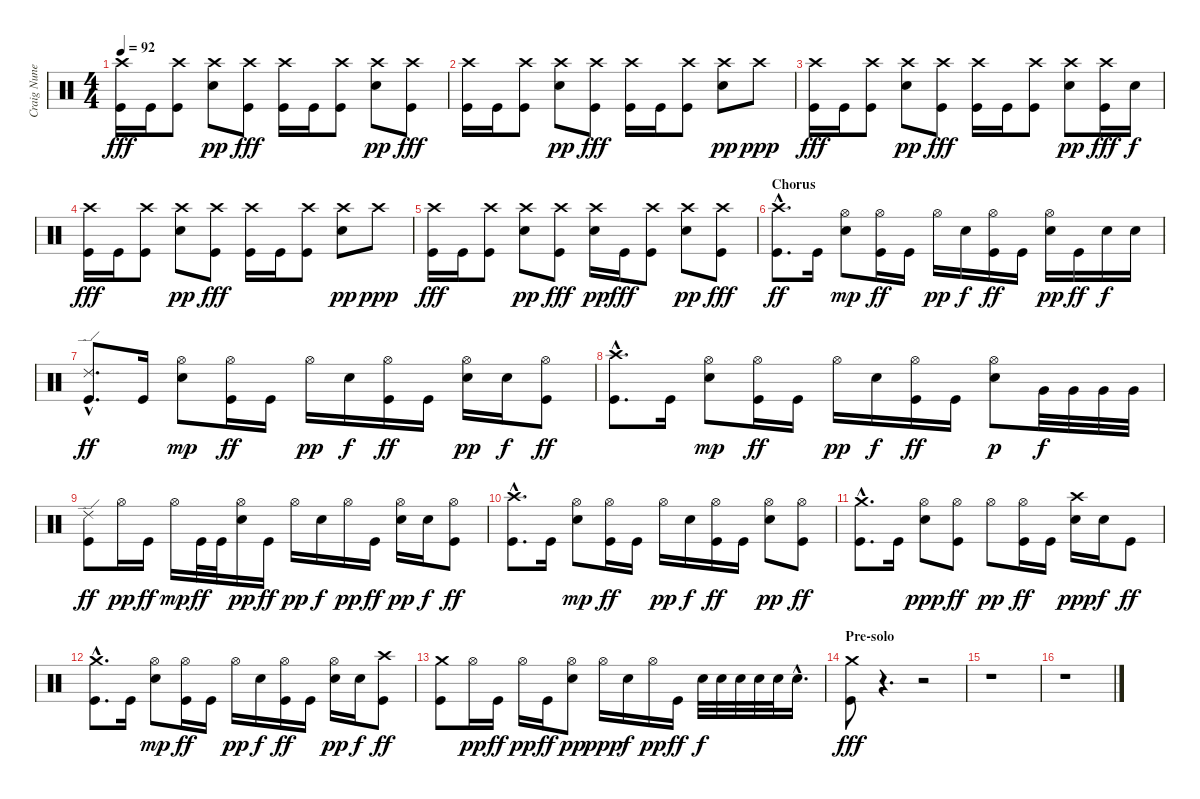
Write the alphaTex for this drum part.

\track ("Craig Nunenmacher" "Craig Nune") {instrument percussion}
\staff {score}
\articulation defaults
\ts (4 4)
\tempo 92
\clef neutral
\ks c
("Crash high (hit)" "Kick (hit)").16{dy fff} "Kick (hit)".16 ("Crash high (hit)" "Kick (hit)").8 ("Crash high (hit)" "Snare (hit) 2").8{dy pp} ("Crash high (hit)" "Kick (hit)").8{dy fff} ("Crash high (hit)" "Kick (hit)").16 "Kick (hit)".16 ("Crash high (hit)" "Kick (hit)").8 ("Crash high (hit)" "Snare (hit) 2").8{dy pp} ("Crash high (hit)" "Kick (hit)").8{dy fff} |
("Crash high (hit)" "Kick (hit)").16 "Kick (hit)".16 ("Crash high (hit)" "Kick (hit)").8 ("Crash high (hit)" "Snare (hit) 2").8{dy pp} ("Crash high (hit)" "Kick (hit)").8{dy fff} ("Crash high (hit)" "Kick (hit)").16 "Kick (hit)".16 ("Crash high (hit)" "Kick (hit)").8 ("Crash high (hit)" "Snare (hit) 2").8{dy pp} "Crash high (hit)".8{dy ppp} |
("Crash high (hit)" "Kick (hit)").16{dy fff} "Kick (hit)".16 ("Crash high (hit)" "Kick (hit)").8 ("Crash high (hit)" "Snare (hit) 2").8{dy pp} ("Crash high (hit)" "Kick (hit)").8{dy fff} ("Crash high (hit)" "Kick (hit)").16 "Kick (hit)".16 ("Crash high (hit)" "Kick (hit)").8 ("Crash high (hit)" "Snare (hit) 2").8{dy pp} ("Crash high (hit)" "Kick (hit)").16{dy fff} "Snare (hit) 2".16{dy f} |
("Crash high (hit)" "Kick (hit)").16{dy fff} "Kick (hit)".16 ("Crash high (hit)" "Kick (hit)").8 ("Crash high (hit)" "Snare (hit) 2").8{dy pp} ("Crash high (hit)" "Kick (hit)").8{dy fff} ("Crash high (hit)" "Kick (hit)").16 "Kick (hit)".16 ("Crash high (hit)" "Kick (hit)").8 ("Crash high (hit)" "Snare (hit) 2").8{dy pp} "Crash high (hit)".8{dy ppp} |
("Crash high (hit)" "Kick (hit)").16{dy fff} "Kick (hit)".16 ("Crash high (hit)" "Kick (hit)").8 ("Crash high (hit)" "Snare (hit) 2").8{dy pp} ("Crash high (hit)" "Kick (hit)").8{dy fff} ("Crash high (hit)" "Snare (hit) 2").16{dy pp} "Kick (hit)".16{dy fff} ("Crash high (hit)" "Kick (hit)").8 ("Crash high (hit)" "Snare (hit) 2").8{dy pp} ("Crash high (hit)" "Kick (hit)").8{dy fff} |
\section ("" "Chorus")
("Crash high (hit)"{hac} "Kick (hit)"{hac}).8{d dy ff} "Kick (hit)".16 ("Hi-Hat (open)" "Snare (hit) 2").8{dy mp} ("Hi-Hat (open)" "Kick (hit)").16{dy ff} "Kick (hit)".16 "Hi-Hat (open)".16{dy pp} "Snare (hit) 2".16{dy f} ("Hi-Hat (open)" "Kick (hit)").16{dy ff} "Kick (hit)".16 ("Hi-Hat (open)" "Snare (hit) 2").16{dy pp} "Kick (hit)".16{dy ff} "Snare (hit) 2".16{dy f} "Snare (hit) 2".16 |
("Ride (edge) 2"{hac} "Kick (hit)"{hac}).8{d dy ff} "Kick (hit)".16 ("Hi-Hat (open)" "Snare (hit) 2").8{dy mp} ("Hi-Hat (open)" "Kick (hit)").16{dy ff} "Kick (hit)".16 "Hi-Hat (open)".16{dy pp} "Snare (hit) 2".16{dy f} ("Hi-Hat (open)" "Kick (hit)").16{dy ff} "Kick (hit)".16 ("Hi-Hat (open)" "Snare (hit) 2").16{dy pp} "Snare (hit) 2".16{dy f} ("Hi-Hat (open)" "Kick (hit)").8{dy ff} |
("Crash high (hit)"{hac} "Kick (hit)"{hac}).8{d} "Kick (hit)".16 ("Hi-Hat (open)" "Snare (hit) 2").8{dy mp} ("Hi-Hat (open)" "Kick (hit)").16{dy ff} "Kick (hit)".16 "Hi-Hat (open)".16{dy pp} "Snare (hit) 2".16{dy f} ("Hi-Hat (open)" "Kick (hit)").16{dy ff} "Kick (hit)".16 ("Hi-Hat (open)" "Snare (hit) 2").8{dy p} "Very Low Tom (hit)".32{dy f} "Very Low Tom (hit)".32 "Very Low Tom (hit)".32 "Very Low Tom (hit)".32 |
("Ride (edge) 2" "Kick (hit)").8{dy ff} "Hi-Hat (open)".16{dy pp} "Kick (hit)".16{dy ff} "Hi-Hat (open)".16{dy mp} "Kick (hit)".32{dy ff} "Kick (hit)".32 ("Hi-Hat (open)" "Snare (hit) 2").16{dy pp} "Kick (hit)".16{dy ff} "Hi-Hat (open)".16{dy pp} "Snare (hit) 2".16{dy f} "Hi-Hat (open)".16{dy pp} "Kick (hit)".16{dy ff} ("Hi-Hat (open)" "Snare (hit) 2").16{dy pp} "Snare (hit) 2".16{dy f} ("Hi-Hat (open)" "Kick (hit)").8{dy ff} |
("Crash high (hit)"{hac} "Kick (hit)"{hac}).8{d} "Kick (hit)".16 ("Hi-Hat (open)" "Snare (hit) 2").8{dy mp} ("Hi-Hat (open)" "Kick (hit)").16{dy ff} "Kick (hit)".16 "Hi-Hat (open)".16{dy pp} "Snare (hit) 2".16{dy f} ("Hi-Hat (open)" "Kick (hit)").16{dy ff} "Kick (hit)".16 ("Hi-Hat (open)" "Snare (hit) 2").8{dy pp} ("Hi-Hat (open)" "Kick (hit)").8{dy ff} |
("Crash medium (hit)"{hac} "Kick (hit)"{hac}).8{d} "Kick (hit)".16 ("Hi-Hat (open)" "Snare (hit) 2").8{dy ppp} ("Hi-Hat (open)" "Kick (hit)").8{dy ff} "Hi-Hat (open)".8{dy pp} ("Hi-Hat (open)" "Kick (hit)").16{dy ff} "Kick (hit)".16 ("Crash high (hit)" "Snare (hit) 2").16{dy ppp} "Snare (hit) 2".16{dy f} "Kick (hit)".8{dy ff} |
("Crash medium (hit)"{hac} "Kick (hit)"{hac}).8{d} "Kick (hit)".16 ("Hi-Hat (open)" "Snare (hit) 2").8{dy mp} ("Hi-Hat (open)" "Kick (hit)").16{dy ff} "Kick (hit)".16 "Hi-Hat (open)".16{dy pp} "Snare (hit) 2".16{dy f} ("Hi-Hat (open)" "Kick (hit)").16{dy ff} "Kick (hit)".16 ("Hi-Hat (open)" "Snare (hit) 2").16{dy pp} "Snare (hit) 2".16{dy f} ("Crash high (hit)" "Kick (hit)").8{dy ff} |
("Crash medium (hit)" "Kick (hit)").8 "Hi-Hat (open)".16{dy pp} "Kick (hit)".16{dy ff} "Hi-Hat (open)".16{dy pp} "Kick (hit)".16{dy ff} ("Hi-Hat (open)" "Snare (hit) 2").8{dy pp} "Hi-Hat (open)".16{dy ppp} "Snare (hit) 2".16{dy f} "Hi-Hat (open)".16{dy pp} "Kick (hit)".16{dy ff} "Snare (hit) 2".32{dy f} "Snare (hit) 2".32 "Snare (hit) 2".32 "Snare (hit) 2".32 "Snare (hit) 2".32 "Snare (hit) 2"{hac}.16{d} |
\section ("" "Pre-solo")
("Crash medium (hit)" "Kick (hit)").8{dy fff} r.4{d} r.2 |
r.1 |
r.1
